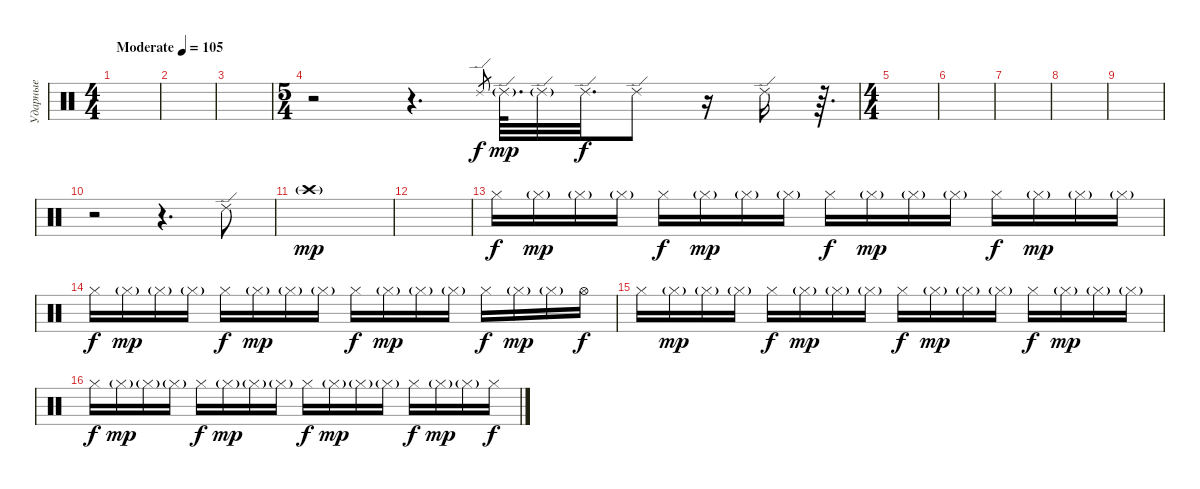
\track ("Ударные" "Ударные") {instrument percussion}
\staff {score}
\articulation defaults
\ts (4 4)
\tempo (105 "Moderate")
\clef neutral
\ks c
|
|
|
\ts (5 4)
r.2 r.4{d} "Ride (edge) 2".8{gr} "Ride (edge) 2"{g}.64{d dy mp} "Ride (edge) 2"{g}.32 "Ride (edge) 2".32{d dy f} "Ride (edge) 2".8 r.16 "Ride (edge) 2".16 r.64{d} |
\ts (4 4)
|
|
|
|
|
r.2 r.4{d} "Ride (edge) 2".8 |
"Crash high (hit)"{g}.1{dy mp} |
|
"Hi-Hat (closed)".16{dy f} "Hi-Hat (closed)"{g}.16{dy mp} "Hi-Hat (closed)"{g}.16 "Hi-Hat (closed)"{g}.16 "Hi-Hat (closed)".16{dy f} "Hi-Hat (closed)"{g}.16{dy mp} "Hi-Hat (closed)"{g}.16 "Hi-Hat (closed)"{g}.16 "Hi-Hat (closed)".16{dy f} "Hi-Hat (closed)"{g}.16{dy mp} "Hi-Hat (closed)"{g}.16 "Hi-Hat (closed)"{g}.16 "Hi-Hat (closed)".16{dy f} "Hi-Hat (closed)"{g}.16{dy mp} "Hi-Hat (closed)"{g}.16 "Hi-Hat (closed)"{g}.16 |
"Hi-Hat (closed)".16{dy f} "Hi-Hat (closed)"{g}.16{dy mp} "Hi-Hat (closed)"{g}.16 "Hi-Hat (closed)"{g}.16 "Hi-Hat (closed)".16{dy f} "Hi-Hat (closed)"{g}.16{dy mp} "Hi-Hat (closed)"{g}.16 "Hi-Hat (closed)"{g}.16 "Hi-Hat (closed)".16{dy f} "Hi-Hat (closed)"{g}.16{dy mp} "Hi-Hat (closed)"{g}.16 "Hi-Hat (closed)"{g}.16 "Hi-Hat (closed)".16{dy f} "Hi-Hat (closed)"{g}.16{dy mp} "Hi-Hat (closed)"{g}.16 "Hi-Hat (open)".16{dy f} |
"Hi-Hat (closed)".16 "Hi-Hat (closed)"{g}.16{dy mp} "Hi-Hat (closed)"{g}.16 "Hi-Hat (closed)"{g}.16 "Hi-Hat (closed)".16{dy f} "Hi-Hat (closed)"{g}.16{dy mp} "Hi-Hat (closed)"{g}.16 "Hi-Hat (closed)"{g}.16 "Hi-Hat (closed)".16{dy f} "Hi-Hat (closed)"{g}.16{dy mp} "Hi-Hat (closed)"{g}.16 "Hi-Hat (closed)"{g}.16 "Hi-Hat (closed)".16{dy f} "Hi-Hat (closed)"{g}.16{dy mp} "Hi-Hat (closed)"{g}.16 "Hi-Hat (closed)"{g}.16 |
"Hi-Hat (closed)".16{dy f} "Hi-Hat (closed)"{g}.16{dy mp} "Hi-Hat (closed)"{g}.16 "Hi-Hat (closed)"{g}.16 "Hi-Hat (closed)".16{dy f} "Hi-Hat (closed)"{g}.16{dy mp} "Hi-Hat (closed)"{g}.16 "Hi-Hat (closed)"{g}.16 "Hi-Hat (closed)".16{dy f} "Hi-Hat (closed)"{g}.16{dy mp} "Hi-Hat (closed)"{g}.16 "Hi-Hat (closed)"{g}.16 "Hi-Hat (closed)".16{dy f} "Hi-Hat (closed)"{g}.16{dy mp} "Hi-Hat (closed)"{g}.16 "Hi-Hat (closed)".16{dy f}
